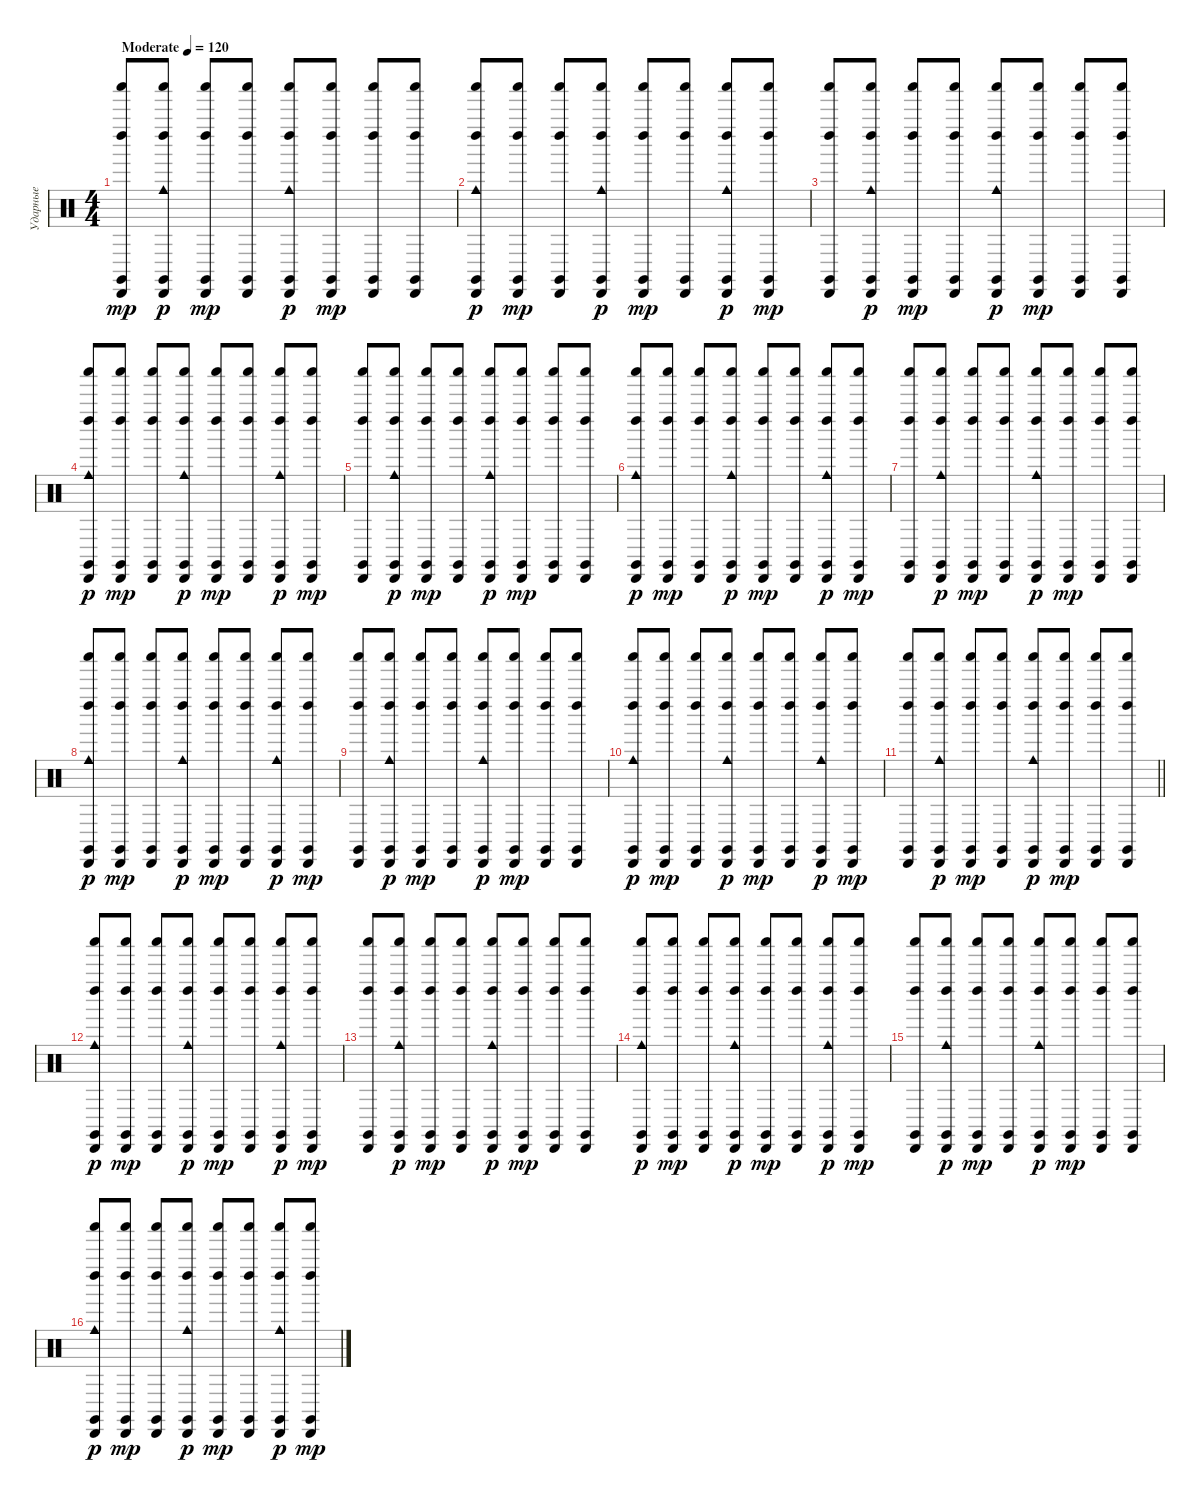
\track ("Ударные" "Ударные") {instrument percussion}
\staff {score}
\articulation defaults
\ts (4 4)
\tempo (120 "Moderate")
\clef neutral
\ks c
("Claves (hit)" "Shaker (hit)" "Cabasa (hit)" "Left Maraca (hit)").8{dy mp} ("Claves (hit)" "Shaker (hit)" "Cabasa (hit)" "Left Maraca (hit)" "Cowbell medium (hit)").8{dy p} ("Claves (hit)" "Shaker (hit)" "Cabasa (hit)" "Left Maraca (hit)").8{dy mp} ("Claves (hit)" "Shaker (hit)" "Cabasa (hit)" "Left Maraca (hit)").8 ("Claves (hit)" "Shaker (hit)" "Cabasa (hit)" "Left Maraca (hit)" "Cowbell medium (hit)").8{dy p} ("Claves (hit)" "Shaker (hit)" "Cabasa (hit)" "Left Maraca (hit)").8{dy mp} ("Claves (hit)" "Shaker (hit)" "Cabasa (hit)" "Left Maraca (hit)").8 ("Claves (hit)" "Shaker (hit)" "Cabasa (hit)" "Left Maraca (hit)").8 |
("Claves (hit)" "Shaker (hit)" "Cabasa (hit)" "Left Maraca (hit)" "Cowbell medium (hit)").8{dy p} ("Claves (hit)" "Shaker (hit)" "Cabasa (hit)" "Left Maraca (hit)").8{dy mp} ("Claves (hit)" "Shaker (hit)" "Cabasa (hit)" "Left Maraca (hit)").8 ("Claves (hit)" "Shaker (hit)" "Cabasa (hit)" "Left Maraca (hit)" "Cowbell medium (hit)").8{dy p} ("Claves (hit)" "Shaker (hit)" "Cabasa (hit)" "Left Maraca (hit)").8{dy mp} ("Claves (hit)" "Shaker (hit)" "Cabasa (hit)" "Left Maraca (hit)").8 ("Claves (hit)" "Shaker (hit)" "Cabasa (hit)" "Left Maraca (hit)" "Cowbell medium (hit)").8{dy p} ("Claves (hit)" "Shaker (hit)" "Cabasa (hit)" "Left Maraca (hit)").8{dy mp} |
("Claves (hit)" "Shaker (hit)" "Cabasa (hit)" "Left Maraca (hit)").8 ("Claves (hit)" "Shaker (hit)" "Cabasa (hit)" "Left Maraca (hit)" "Cowbell medium (hit)").8{dy p} ("Claves (hit)" "Shaker (hit)" "Cabasa (hit)" "Left Maraca (hit)").8{dy mp} ("Claves (hit)" "Shaker (hit)" "Cabasa (hit)" "Left Maraca (hit)").8 ("Claves (hit)" "Shaker (hit)" "Cabasa (hit)" "Left Maraca (hit)" "Cowbell medium (hit)").8{dy p} ("Claves (hit)" "Shaker (hit)" "Cabasa (hit)" "Left Maraca (hit)").8{dy mp} ("Claves (hit)" "Shaker (hit)" "Cabasa (hit)" "Left Maraca (hit)").8 ("Claves (hit)" "Shaker (hit)" "Cabasa (hit)" "Left Maraca (hit)").8 |
("Claves (hit)" "Shaker (hit)" "Cabasa (hit)" "Left Maraca (hit)" "Cowbell medium (hit)").8{dy p} ("Claves (hit)" "Shaker (hit)" "Cabasa (hit)" "Left Maraca (hit)").8{dy mp} ("Claves (hit)" "Shaker (hit)" "Cabasa (hit)" "Left Maraca (hit)").8 ("Claves (hit)" "Shaker (hit)" "Cabasa (hit)" "Left Maraca (hit)" "Cowbell medium (hit)").8{dy p} ("Claves (hit)" "Shaker (hit)" "Cabasa (hit)" "Left Maraca (hit)").8{dy mp} ("Claves (hit)" "Shaker (hit)" "Cabasa (hit)" "Left Maraca (hit)").8 ("Claves (hit)" "Shaker (hit)" "Cabasa (hit)" "Left Maraca (hit)" "Cowbell medium (hit)").8{dy p} ("Claves (hit)" "Shaker (hit)" "Cabasa (hit)" "Left Maraca (hit)").8{dy mp} |
("Claves (hit)" "Shaker (hit)" "Cabasa (hit)" "Left Maraca (hit)").8 ("Claves (hit)" "Shaker (hit)" "Cabasa (hit)" "Left Maraca (hit)" "Cowbell medium (hit)").8{dy p} ("Claves (hit)" "Shaker (hit)" "Cabasa (hit)" "Left Maraca (hit)").8{dy mp} ("Claves (hit)" "Shaker (hit)" "Cabasa (hit)" "Left Maraca (hit)").8 ("Claves (hit)" "Shaker (hit)" "Cabasa (hit)" "Left Maraca (hit)" "Cowbell medium (hit)").8{dy p} ("Claves (hit)" "Shaker (hit)" "Cabasa (hit)" "Left Maraca (hit)").8{dy mp} ("Claves (hit)" "Shaker (hit)" "Cabasa (hit)" "Left Maraca (hit)").8 ("Claves (hit)" "Shaker (hit)" "Cabasa (hit)" "Left Maraca (hit)").8 |
("Claves (hit)" "Shaker (hit)" "Cabasa (hit)" "Left Maraca (hit)" "Cowbell medium (hit)").8{dy p} ("Claves (hit)" "Shaker (hit)" "Cabasa (hit)" "Left Maraca (hit)").8{dy mp} ("Claves (hit)" "Shaker (hit)" "Cabasa (hit)" "Left Maraca (hit)").8 ("Claves (hit)" "Shaker (hit)" "Cabasa (hit)" "Left Maraca (hit)" "Cowbell medium (hit)").8{dy p} ("Claves (hit)" "Shaker (hit)" "Cabasa (hit)" "Left Maraca (hit)").8{dy mp} ("Claves (hit)" "Shaker (hit)" "Cabasa (hit)" "Left Maraca (hit)").8 ("Claves (hit)" "Shaker (hit)" "Cabasa (hit)" "Left Maraca (hit)" "Cowbell medium (hit)").8{dy p} ("Claves (hit)" "Shaker (hit)" "Cabasa (hit)" "Left Maraca (hit)").8{dy mp} |
("Claves (hit)" "Shaker (hit)" "Cabasa (hit)" "Left Maraca (hit)").8 ("Claves (hit)" "Shaker (hit)" "Cabasa (hit)" "Left Maraca (hit)" "Cowbell medium (hit)").8{dy p} ("Claves (hit)" "Shaker (hit)" "Cabasa (hit)" "Left Maraca (hit)").8{dy mp} ("Claves (hit)" "Shaker (hit)" "Cabasa (hit)" "Left Maraca (hit)").8 ("Claves (hit)" "Shaker (hit)" "Cabasa (hit)" "Left Maraca (hit)" "Cowbell medium (hit)").8{dy p} ("Claves (hit)" "Shaker (hit)" "Cabasa (hit)" "Left Maraca (hit)").8{dy mp} ("Claves (hit)" "Shaker (hit)" "Cabasa (hit)" "Left Maraca (hit)").8 ("Claves (hit)" "Shaker (hit)" "Cabasa (hit)" "Left Maraca (hit)").8 |
("Claves (hit)" "Shaker (hit)" "Cabasa (hit)" "Left Maraca (hit)" "Cowbell medium (hit)").8{dy p} ("Claves (hit)" "Shaker (hit)" "Cabasa (hit)" "Left Maraca (hit)").8{dy mp} ("Claves (hit)" "Shaker (hit)" "Cabasa (hit)" "Left Maraca (hit)").8 ("Claves (hit)" "Shaker (hit)" "Cabasa (hit)" "Left Maraca (hit)" "Cowbell medium (hit)").8{dy p} ("Claves (hit)" "Shaker (hit)" "Cabasa (hit)" "Left Maraca (hit)").8{dy mp} ("Claves (hit)" "Shaker (hit)" "Cabasa (hit)" "Left Maraca (hit)").8 ("Claves (hit)" "Shaker (hit)" "Cabasa (hit)" "Left Maraca (hit)" "Cowbell medium (hit)").8{dy p} ("Claves (hit)" "Shaker (hit)" "Cabasa (hit)" "Left Maraca (hit)").8{dy mp} |
("Claves (hit)" "Shaker (hit)" "Cabasa (hit)" "Left Maraca (hit)").8 ("Claves (hit)" "Shaker (hit)" "Cabasa (hit)" "Left Maraca (hit)" "Cowbell medium (hit)").8{dy p} ("Claves (hit)" "Shaker (hit)" "Cabasa (hit)" "Left Maraca (hit)").8{dy mp} ("Claves (hit)" "Shaker (hit)" "Cabasa (hit)" "Left Maraca (hit)").8 ("Claves (hit)" "Shaker (hit)" "Cabasa (hit)" "Left Maraca (hit)" "Cowbell medium (hit)").8{dy p} ("Claves (hit)" "Shaker (hit)" "Cabasa (hit)" "Left Maraca (hit)").8{dy mp} ("Claves (hit)" "Shaker (hit)" "Cabasa (hit)" "Left Maraca (hit)").8 ("Claves (hit)" "Shaker (hit)" "Cabasa (hit)" "Left Maraca (hit)").8 |
("Claves (hit)" "Shaker (hit)" "Cabasa (hit)" "Left Maraca (hit)" "Cowbell medium (hit)").8{dy p} ("Claves (hit)" "Shaker (hit)" "Cabasa (hit)" "Left Maraca (hit)").8{dy mp} ("Claves (hit)" "Shaker (hit)" "Cabasa (hit)" "Left Maraca (hit)").8 ("Claves (hit)" "Shaker (hit)" "Cabasa (hit)" "Left Maraca (hit)" "Cowbell medium (hit)").8{dy p} ("Claves (hit)" "Shaker (hit)" "Cabasa (hit)" "Left Maraca (hit)").8{dy mp} ("Claves (hit)" "Shaker (hit)" "Cabasa (hit)" "Left Maraca (hit)").8 ("Claves (hit)" "Shaker (hit)" "Cabasa (hit)" "Left Maraca (hit)" "Cowbell medium (hit)").8{dy p} ("Claves (hit)" "Shaker (hit)" "Cabasa (hit)" "Left Maraca (hit)").8{dy mp} |
\barLineRight lightlight
("Claves (hit)" "Shaker (hit)" "Cabasa (hit)" "Left Maraca (hit)").8 ("Claves (hit)" "Shaker (hit)" "Cabasa (hit)" "Left Maraca (hit)" "Cowbell medium (hit)").8{dy p} ("Claves (hit)" "Shaker (hit)" "Cabasa (hit)" "Left Maraca (hit)").8{dy mp} ("Claves (hit)" "Shaker (hit)" "Cabasa (hit)" "Left Maraca (hit)").8 ("Claves (hit)" "Shaker (hit)" "Cabasa (hit)" "Left Maraca (hit)" "Cowbell medium (hit)").8{dy p} ("Claves (hit)" "Shaker (hit)" "Cabasa (hit)" "Left Maraca (hit)").8{dy mp} ("Claves (hit)" "Shaker (hit)" "Cabasa (hit)" "Left Maraca (hit)").8 ("Claves (hit)" "Shaker (hit)" "Cabasa (hit)" "Left Maraca (hit)").8 |
("Claves (hit)" "Shaker (hit)" "Cabasa (hit)" "Left Maraca (hit)" "Cowbell medium (hit)").8{dy p} ("Claves (hit)" "Shaker (hit)" "Cabasa (hit)" "Left Maraca (hit)").8{dy mp} ("Claves (hit)" "Shaker (hit)" "Cabasa (hit)" "Left Maraca (hit)").8 ("Claves (hit)" "Shaker (hit)" "Cabasa (hit)" "Left Maraca (hit)" "Cowbell medium (hit)").8{dy p} ("Claves (hit)" "Shaker (hit)" "Cabasa (hit)" "Left Maraca (hit)").8{dy mp} ("Claves (hit)" "Shaker (hit)" "Cabasa (hit)" "Left Maraca (hit)").8 ("Claves (hit)" "Shaker (hit)" "Cabasa (hit)" "Left Maraca (hit)" "Cowbell medium (hit)").8{dy p} ("Claves (hit)" "Shaker (hit)" "Cabasa (hit)" "Left Maraca (hit)").8{dy mp} |
("Claves (hit)" "Shaker (hit)" "Cabasa (hit)" "Left Maraca (hit)").8 ("Claves (hit)" "Shaker (hit)" "Cabasa (hit)" "Left Maraca (hit)" "Cowbell medium (hit)").8{dy p} ("Claves (hit)" "Shaker (hit)" "Cabasa (hit)" "Left Maraca (hit)").8{dy mp} ("Claves (hit)" "Shaker (hit)" "Cabasa (hit)" "Left Maraca (hit)").8 ("Claves (hit)" "Shaker (hit)" "Cabasa (hit)" "Left Maraca (hit)" "Cowbell medium (hit)").8{dy p} ("Claves (hit)" "Shaker (hit)" "Cabasa (hit)" "Left Maraca (hit)").8{dy mp} ("Claves (hit)" "Shaker (hit)" "Cabasa (hit)" "Left Maraca (hit)").8 ("Claves (hit)" "Shaker (hit)" "Cabasa (hit)" "Left Maraca (hit)").8 |
("Claves (hit)" "Shaker (hit)" "Cabasa (hit)" "Left Maraca (hit)" "Cowbell medium (hit)").8{dy p} ("Claves (hit)" "Shaker (hit)" "Cabasa (hit)" "Left Maraca (hit)").8{dy mp} ("Claves (hit)" "Shaker (hit)" "Cabasa (hit)" "Left Maraca (hit)").8 ("Claves (hit)" "Shaker (hit)" "Cabasa (hit)" "Left Maraca (hit)" "Cowbell medium (hit)").8{dy p} ("Claves (hit)" "Shaker (hit)" "Cabasa (hit)" "Left Maraca (hit)").8{dy mp} ("Claves (hit)" "Shaker (hit)" "Cabasa (hit)" "Left Maraca (hit)").8 ("Claves (hit)" "Shaker (hit)" "Cabasa (hit)" "Left Maraca (hit)" "Cowbell medium (hit)").8{dy p} ("Claves (hit)" "Shaker (hit)" "Cabasa (hit)" "Left Maraca (hit)").8{dy mp} |
("Claves (hit)" "Shaker (hit)" "Cabasa (hit)" "Left Maraca (hit)").8 ("Claves (hit)" "Shaker (hit)" "Cabasa (hit)" "Left Maraca (hit)" "Cowbell medium (hit)").8{dy p} ("Claves (hit)" "Shaker (hit)" "Cabasa (hit)" "Left Maraca (hit)").8{dy mp} ("Claves (hit)" "Shaker (hit)" "Cabasa (hit)" "Left Maraca (hit)").8 ("Claves (hit)" "Shaker (hit)" "Cabasa (hit)" "Left Maraca (hit)" "Cowbell medium (hit)").8{dy p} ("Claves (hit)" "Shaker (hit)" "Cabasa (hit)" "Left Maraca (hit)").8{dy mp} ("Claves (hit)" "Shaker (hit)" "Cabasa (hit)" "Left Maraca (hit)").8 ("Claves (hit)" "Shaker (hit)" "Cabasa (hit)" "Left Maraca (hit)").8 |
("Claves (hit)" "Shaker (hit)" "Cabasa (hit)" "Left Maraca (hit)" "Cowbell medium (hit)").8{dy p} ("Claves (hit)" "Shaker (hit)" "Cabasa (hit)" "Left Maraca (hit)").8{dy mp} ("Claves (hit)" "Shaker (hit)" "Cabasa (hit)" "Left Maraca (hit)").8 ("Claves (hit)" "Shaker (hit)" "Cabasa (hit)" "Left Maraca (hit)" "Cowbell medium (hit)").8{dy p} ("Claves (hit)" "Shaker (hit)" "Cabasa (hit)" "Left Maraca (hit)").8{dy mp} ("Claves (hit)" "Shaker (hit)" "Cabasa (hit)" "Left Maraca (hit)").8 ("Claves (hit)" "Shaker (hit)" "Cabasa (hit)" "Left Maraca (hit)" "Cowbell medium (hit)").8{dy p} ("Claves (hit)" "Shaker (hit)" "Cabasa (hit)" "Left Maraca (hit)").8{dy mp}
